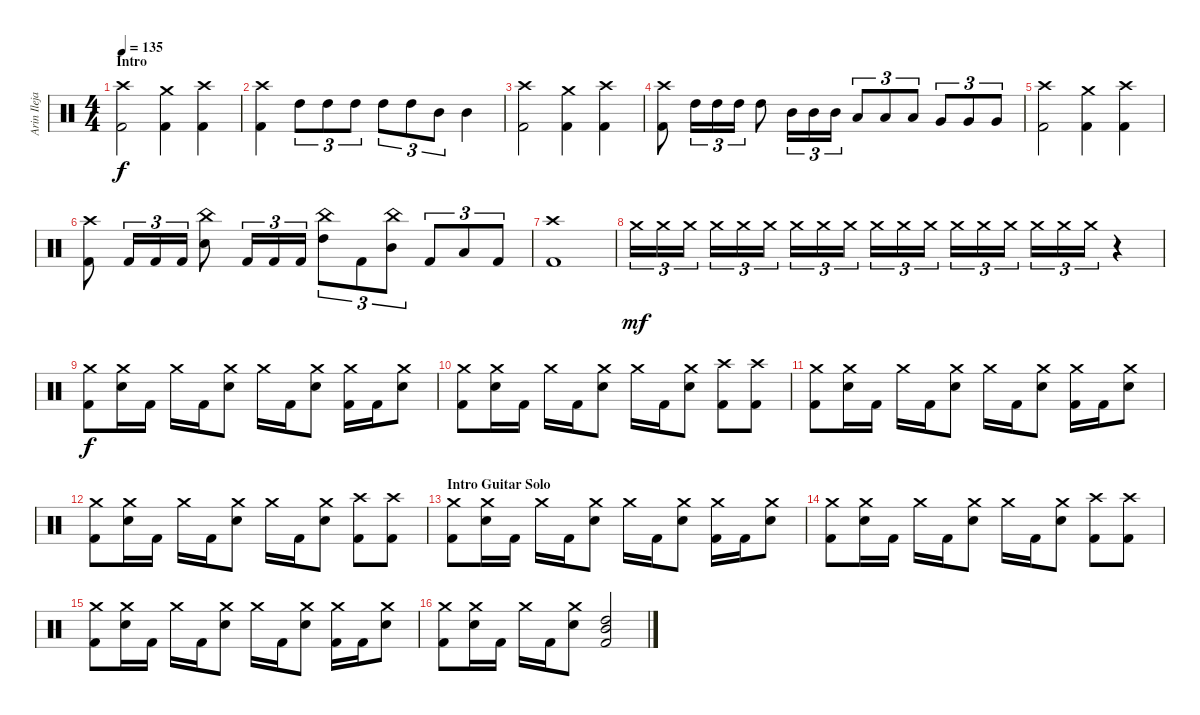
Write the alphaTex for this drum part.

\track ("Arin Ilejay" "Arin Ileja") {instrument percussion}
\staff {score}
\articulation defaults
\ts (4 4)
\section ("" "Intro")
\tempo 135
\clef neutral
\ks c
("Crash high (hit)" "Kick (hit) 2").2{dy f} ("Crash medium (hit)" "Kick (hit) 2").4 ("Crash high (hit)" "Kick (hit) 2").4 |
("Crash high (hit)" "Kick (hit) 2").4 "High Tom (hit)".8{tu (3 2)} "High Tom (hit)".8{tu (3 2)} "High Tom (hit)".8{tu (3 2)} "High Tom (hit)".8{tu (3 2)} "High Tom (hit)".8{tu (3 2)} "Mid Tom (hit)".8{tu (3 2)} "Mid Tom (hit)".4 |
("Crash high (hit)" "Kick (hit) 2").2 ("Crash medium (hit)" "Kick (hit) 2").4 ("Crash high (hit)" "Kick (hit) 2").4 |
("Crash high (hit)" "Kick (hit) 2").8 "High Tom (hit)".16{tu (3 2)} "High Tom (hit)".16{tu (3 2)} "High Tom (hit)".16{tu (3 2)} "High Tom (hit)".8 "Mid Tom (hit)".16{tu (3 2)} "Mid Tom (hit)".16{tu (3 2)} "Mid Tom (hit)".16{tu (3 2)} "Low Tom (hit)".8{tu (3 2)} "Low Tom (hit)".8{tu (3 2)} "Low Tom (hit)".8{tu (3 2)} "Very Low Tom (hit)".8{tu (3 2)} "Very Low Tom (hit)".8{tu (3 2)} "Very Low Tom (hit)".8{tu (3 2)} |
("Crash high (hit)" "Kick (hit) 2").2 ("Crash medium (hit)" "Kick (hit) 2").4 ("Crash high (hit)" "Kick (hit) 2").4 |
("Crash high (hit)" "Kick (hit) 2").8 "Kick (hit) 2".16{tu (3 2)} "Kick (hit) 2".16{tu (3 2)} "Kick (hit) 2".16{tu (3 2)} ("Snare (hit) 2" "China (hit)").8 "Kick (hit) 2".16{tu (3 2)} "Kick (hit) 2".16{tu (3 2)} "Kick (hit) 2".16{tu (3 2)} ("High Tom (hit)" "China (hit)").8{tu (3 2)} "Kick (hit) 2".8{tu (3 2)} ("China (hit)" "Mid Tom (hit)").8{tu (3 2)} "Kick (hit) 2".8{tu (3 2)} "Low Tom (hit)".8{tu (3 2)} "Kick (hit) 2".8{tu (3 2)} |
("Crash high (hit)" "Kick (hit) 2").1 |
"Crash medium (hit)".16{tu (3 2) dy mf} "Crash medium (hit)".16{tu (3 2)} "Crash medium (hit)".16{tu (3 2)} "Crash medium (hit)".16{tu (3 2)} "Crash medium (hit)".16{tu (3 2)} "Crash medium (hit)".16{tu (3 2)} "Crash medium (hit)".16{tu (3 2)} "Crash medium (hit)".16{tu (3 2)} "Crash medium (hit)".16{tu (3 2)} "Crash medium (hit)".16{tu (3 2)} "Crash medium (hit)".16{tu (3 2)} "Crash medium (hit)".16{tu (3 2)} "Crash medium (hit)".16{tu (3 2)} "Crash medium (hit)".16{tu (3 2)} "Crash medium (hit)".16{tu (3 2)} "Crash medium (hit)".16{tu (3 2)} "Crash medium (hit)".16{tu (3 2)} "Crash medium (hit)".16{tu (3 2)} r.4 |
\section ("" "")
("Crash medium (hit)" "Kick (hit) 2").8{dy f} ("Snare (hit) 2" "Crash medium (hit)").16 "Kick (hit) 2".16 "Crash medium (hit)".16 "Kick (hit) 2".16 ("Snare (hit) 2" "Crash medium (hit)").8 "Crash medium (hit)".16 "Kick (hit) 2".16 ("Snare (hit) 2" "Crash medium (hit)").8 ("Crash medium (hit)" "Kick (hit) 2").16 "Kick (hit) 2".16 ("Snare (hit) 2" "Crash medium (hit)").8 |
("Crash medium (hit)" "Kick (hit) 2").8 ("Snare (hit) 2" "Crash medium (hit)").16 "Kick (hit) 2".16 "Crash medium (hit)".16 "Kick (hit) 2".16 ("Snare (hit) 2" "Crash medium (hit)").8 "Crash medium (hit)".16 "Kick (hit) 2".16 ("Snare (hit) 2" "Crash medium (hit)").8 ("Kick (hit) 2" "Crash high (hit)").8 ("Crash high (hit)" "Kick (hit) 2").8 |
("Crash medium (hit)" "Kick (hit) 2").8 ("Snare (hit) 2" "Crash medium (hit)").16 "Kick (hit) 2".16 "Crash medium (hit)".16 "Kick (hit) 2".16 ("Snare (hit) 2" "Crash medium (hit)").8 "Crash medium (hit)".16 "Kick (hit) 2".16 ("Snare (hit) 2" "Crash medium (hit)").8 ("Crash medium (hit)" "Kick (hit) 2").16 "Kick (hit) 2".16 ("Snare (hit) 2" "Crash medium (hit)").8 |
("Crash medium (hit)" "Kick (hit) 2").8 ("Snare (hit) 2" "Crash medium (hit)").16 "Kick (hit) 2".16 "Crash medium (hit)".16 "Kick (hit) 2".16 ("Snare (hit) 2" "Crash medium (hit)").8 "Crash medium (hit)".16 "Kick (hit) 2".16 ("Snare (hit) 2" "Crash medium (hit)").8 ("Kick (hit) 2" "Crash high (hit)").8 ("Crash high (hit)" "Kick (hit) 2").8 |
\section ("" "Intro Guitar Solo")
("Crash medium (hit)" "Kick (hit) 2").8 ("Snare (hit) 2" "Crash medium (hit)").16 "Kick (hit) 2".16 "Crash medium (hit)".16 "Kick (hit) 2".16 ("Snare (hit) 2" "Crash medium (hit)").8 "Crash medium (hit)".16 "Kick (hit) 2".16 ("Snare (hit) 2" "Crash medium (hit)").8 ("Crash medium (hit)" "Kick (hit) 2").16 "Kick (hit) 2".16 ("Snare (hit) 2" "Crash medium (hit)").8 |
("Crash medium (hit)" "Kick (hit) 2").8 ("Snare (hit) 2" "Crash medium (hit)").16 "Kick (hit) 2".16 "Crash medium (hit)".16 "Kick (hit) 2".16 ("Snare (hit) 2" "Crash medium (hit)").8 "Crash medium (hit)".16 "Kick (hit) 2".16 ("Snare (hit) 2" "Crash medium (hit)").8 ("Kick (hit) 2" "Crash high (hit)").8 ("Crash high (hit)" "Kick (hit) 2").8 |
("Crash medium (hit)" "Kick (hit) 2").8 ("Snare (hit) 2" "Crash medium (hit)").16 "Kick (hit) 2".16 "Crash medium (hit)".16 "Kick (hit) 2".16 ("Snare (hit) 2" "Crash medium (hit)").8 "Crash medium (hit)".16 "Kick (hit) 2".16 ("Snare (hit) 2" "Crash medium (hit)").8 ("Crash medium (hit)" "Kick (hit) 2").16 "Kick (hit) 2".16 ("Snare (hit) 2" "Crash medium (hit)").8 |
("Crash medium (hit)" "Kick (hit) 2").8 ("Snare (hit) 2" "Crash medium (hit)").16 "Kick (hit) 2".16 "Crash medium (hit)".16 "Kick (hit) 2".16 ("Snare (hit) 2" "Crash medium (hit)").8 ("High Tom (hit)" "Mid Tom (hit)" "Kick (hit) 2").2
